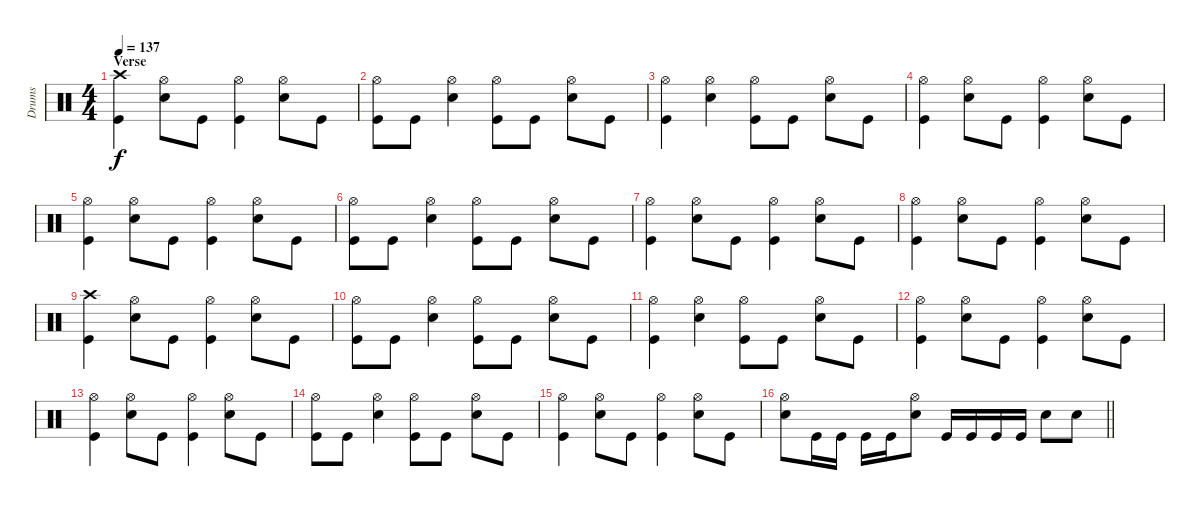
\track ("Drums" "Drums") {instrument percussion}
\staff {score}
\articulation defaults
\ts (4 4)
\section ("" "Verse")
\tempo 137
\clef neutral
\ks c
("Crash high (hit)" "Kick (hit)").4{dy f} ("Hi-Hat (open)" "Electric Snare (hit)").8 "Kick (hit)".8 ("Hi-Hat (open)" "Kick (hit)").4 ("Hi-Hat (open)" "Electric Snare (hit)").8 "Kick (hit)".8 |
("Hi-Hat (open)" "Kick (hit)").8 "Kick (hit)".8 ("Hi-Hat (open)" "Electric Snare (hit)").4 ("Hi-Hat (open)" "Kick (hit)").8 "Kick (hit)".8 ("Hi-Hat (open)" "Electric Snare (hit)").8 "Kick (hit)".8 |
("Hi-Hat (open)" "Kick (hit)").4 ("Hi-Hat (open)" "Electric Snare (hit)").4 ("Hi-Hat (open)" "Kick (hit)").8 "Kick (hit)".8 ("Hi-Hat (open)" "Electric Snare (hit)").8 "Kick (hit)".8 |
("Hi-Hat (open)" "Kick (hit)").4 ("Hi-Hat (open)" "Electric Snare (hit)").8 "Kick (hit)".8 ("Hi-Hat (open)" "Kick (hit)").4 ("Hi-Hat (open)" "Electric Snare (hit)").8 "Kick (hit)".8 |
("Hi-Hat (open)" "Kick (hit)").4 ("Hi-Hat (open)" "Electric Snare (hit)").8 "Kick (hit)".8 ("Hi-Hat (open)" "Kick (hit)").4 ("Hi-Hat (open)" "Electric Snare (hit)").8 "Kick (hit)".8 |
("Hi-Hat (open)" "Kick (hit)").8 "Kick (hit)".8 ("Hi-Hat (open)" "Electric Snare (hit)").4 ("Hi-Hat (open)" "Kick (hit)").8 "Kick (hit)".8 ("Hi-Hat (open)" "Electric Snare (hit)").8 "Kick (hit)".8 |
("Hi-Hat (open)" "Kick (hit)").4 ("Hi-Hat (open)" "Electric Snare (hit)").8 "Kick (hit)".8 ("Hi-Hat (open)" "Kick (hit)").4 ("Hi-Hat (open)" "Electric Snare (hit)").8 "Kick (hit)".8 |
("Hi-Hat (open)" "Kick (hit)").4 ("Hi-Hat (open)" "Electric Snare (hit)").8 "Kick (hit)".8 ("Hi-Hat (open)" "Kick (hit)").4 ("Hi-Hat (open)" "Electric Snare (hit)").8 "Kick (hit)".8 |
("Crash high (hit)" "Kick (hit)").4 ("Hi-Hat (open)" "Electric Snare (hit)").8 "Kick (hit)".8 ("Hi-Hat (open)" "Kick (hit)").4 ("Hi-Hat (open)" "Electric Snare (hit)").8 "Kick (hit)".8 |
("Hi-Hat (open)" "Kick (hit)").8 "Kick (hit)".8 ("Hi-Hat (open)" "Electric Snare (hit)").4 ("Hi-Hat (open)" "Kick (hit)").8 "Kick (hit)".8 ("Hi-Hat (open)" "Electric Snare (hit)").8 "Kick (hit)".8 |
("Hi-Hat (open)" "Kick (hit)").4 ("Hi-Hat (open)" "Electric Snare (hit)").4 ("Hi-Hat (open)" "Kick (hit)").8 "Kick (hit)".8 ("Hi-Hat (open)" "Electric Snare (hit)").8 "Kick (hit)".8 |
("Hi-Hat (open)" "Kick (hit)").4 ("Hi-Hat (open)" "Electric Snare (hit)").8 "Kick (hit)".8 ("Hi-Hat (open)" "Kick (hit)").4 ("Hi-Hat (open)" "Electric Snare (hit)").8 "Kick (hit)".8 |
("Hi-Hat (open)" "Kick (hit)").4 ("Hi-Hat (open)" "Electric Snare (hit)").8 "Kick (hit)".8 ("Hi-Hat (open)" "Kick (hit)").4 ("Hi-Hat (open)" "Electric Snare (hit)").8 "Kick (hit)".8 |
("Hi-Hat (open)" "Kick (hit)").8 "Kick (hit)".8 ("Hi-Hat (open)" "Electric Snare (hit)").4 ("Hi-Hat (open)" "Kick (hit)").8 "Kick (hit)".8 ("Hi-Hat (open)" "Electric Snare (hit)").8 "Kick (hit)".8 |
("Hi-Hat (open)" "Kick (hit)").4 ("Hi-Hat (open)" "Electric Snare (hit)").8 "Kick (hit)".8 ("Hi-Hat (open)" "Kick (hit)").4 ("Hi-Hat (open)" "Electric Snare (hit)").8 "Kick (hit)".8 |
\barLineRight lightlight
("Hi-Hat (open)" "Electric Snare (hit)").8 "Kick (hit)".16 "Kick (hit)".16 "Kick (hit)".16 "Kick (hit)".16 ("Hi-Hat (open)" "Electric Snare (hit)").8 "Kick (hit)".16 "Kick (hit)".16 "Kick (hit)".16 "Kick (hit)".16 "Electric Snare (hit)".8 "Electric Snare (hit)".8
